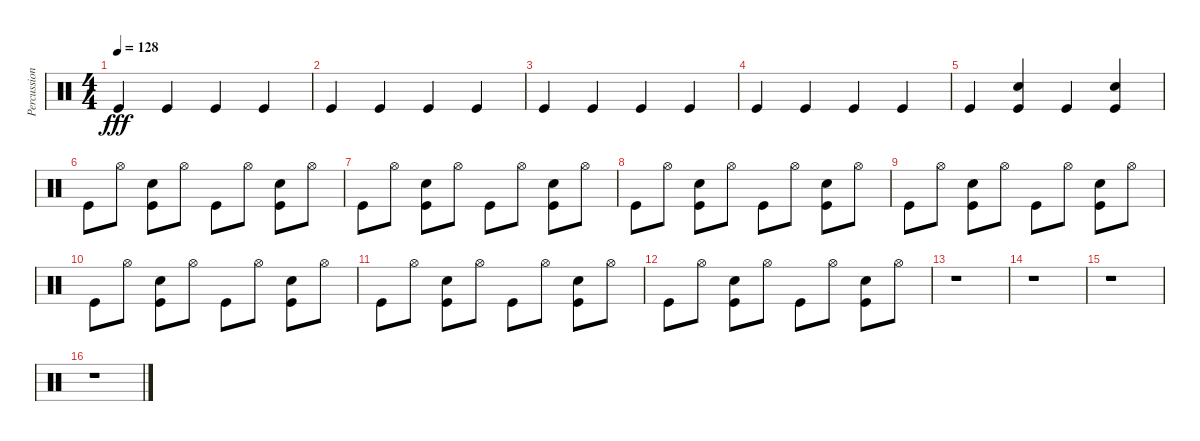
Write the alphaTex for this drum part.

\track ("Percussion" "Percussion") {instrument percussion}
\staff {score}
\articulation defaults
\ts (4 4)
\tempo 128
\clef neutral
\ks c "Kick (hit)".4{dy fff} "Kick (hit)".4 "Kick (hit)".4 "Kick (hit)".4
|
"Kick (hit)".4 "Kick (hit)".4 "Kick (hit)".4 "Kick (hit)".4 |
"Kick (hit)".4 "Kick (hit)".4 "Kick (hit)".4 "Kick (hit)".4 |
"Kick (hit)".4 "Kick (hit)".4 "Kick (hit)".4 "Kick (hit)".4 |
"Kick (hit)".4 ("Hand Clap (hit)" "Kick (hit)").4 "Kick (hit)".4 ("Hand Clap (hit)" "Kick (hit)").4 |
"Kick (hit)".8 "Hi-Hat (open)".8 ("Hand Clap (hit)" "Kick (hit)").8 "Hi-Hat (open)".8 "Kick (hit)".8 "Hi-Hat (open)".8 ("Kick (hit)" "Hand Clap (hit)").8 "Hi-Hat (open)".8 |
"Kick (hit)".8 "Hi-Hat (open)".8 ("Hand Clap (hit)" "Kick (hit)").8 "Hi-Hat (open)".8 "Kick (hit)".8 "Hi-Hat (open)".8 ("Kick (hit)" "Hand Clap (hit)").8 "Hi-Hat (open)".8 |
"Kick (hit)".8 "Hi-Hat (open)".8 ("Hand Clap (hit)" "Kick (hit)").8 "Hi-Hat (open)".8 "Kick (hit)".8 "Hi-Hat (open)".8 ("Hand Clap (hit)" "Kick (hit)").8 "Hi-Hat (open)".8 |
"Kick (hit)".8 "Hi-Hat (open)".8 ("Hand Clap (hit)" "Kick (hit)").8 "Hi-Hat (open)".8 "Kick (hit)".8 "Hi-Hat (open)".8 ("Hand Clap (hit)" "Kick (hit)").8 "Hi-Hat (open)".8 |
"Kick (hit)".8 "Hi-Hat (open)".8 ("Hand Clap (hit)" "Kick (hit)").8 "Hi-Hat (open)".8 "Kick (hit)".8 "Hi-Hat (open)".8 ("Hand Clap (hit)" "Kick (hit)").8 "Hi-Hat (open)".8 |
"Kick (hit)".8 "Hi-Hat (open)".8 ("Hand Clap (hit)" "Kick (hit)").8 "Hi-Hat (open)".8 "Kick (hit)".8 "Hi-Hat (open)".8 ("Hand Clap (hit)" "Kick (hit)").8 "Hi-Hat (open)".8 |
"Kick (hit)".8 "Hi-Hat (open)".8 ("Hand Clap (hit)" "Kick (hit)").8 "Hi-Hat (open)".8 "Kick (hit)".8 "Hi-Hat (open)".8 ("Hand Clap (hit)" "Kick (hit)").8 "Hi-Hat (open)".8 |
r.1 |
r.1 |
r.1 |
r.1
